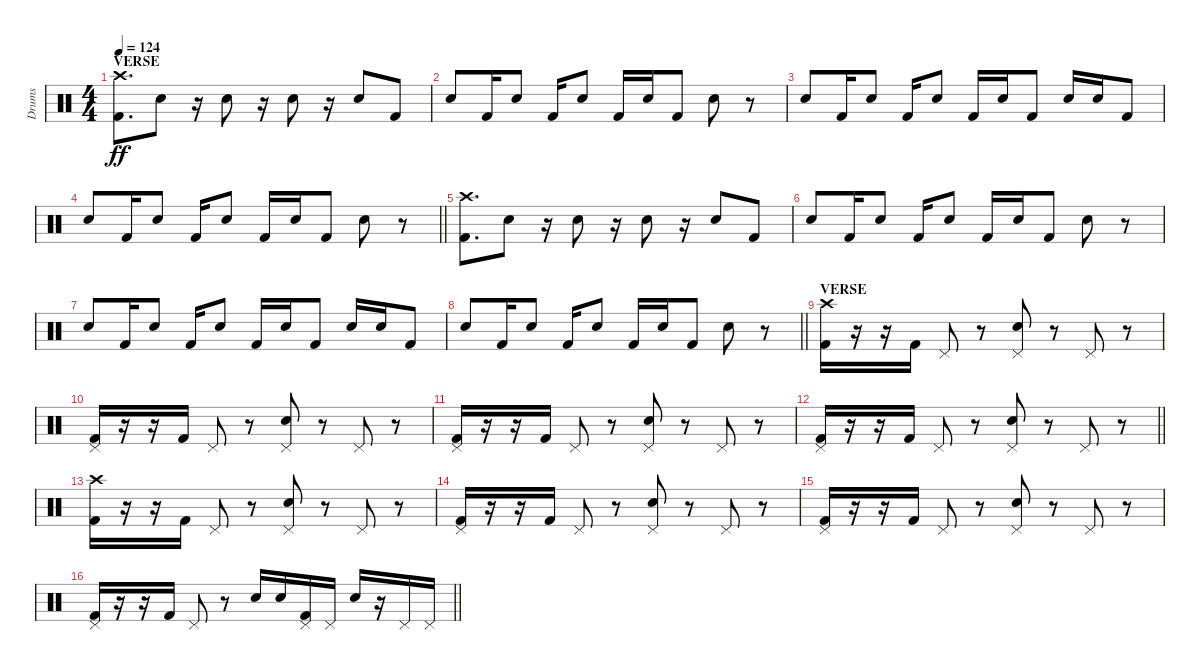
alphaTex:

\track ("Drums" "Drums") {instrument percussion}
\staff {score}
\articulation defaults
\ts (4 4)
\section ("" "VERSE")
\tempo 124
\clef neutral
\ks c
("Crash high (hit)" "Kick (hit) 2").8{d dy ff} "Electric Snare (hit)".8 r.16 "Electric Snare (hit)".8 r.16 "Electric Snare (hit)".8 r.16 "Electric Snare (hit)".8 "Kick (hit) 2".8 |
"Electric Snare (hit)".8 "Kick (hit) 2".16 "Electric Snare (hit)".8 "Kick (hit) 2".16 "Electric Snare (hit)".8 "Kick (hit) 2".16 "Electric Snare (hit)".16 "Kick (hit) 2".8 "Electric Snare (hit)".8 r.8 |
"Electric Snare (hit)".8 "Kick (hit) 2".16 "Electric Snare (hit)".8 "Kick (hit) 2".16 "Electric Snare (hit)".8 "Kick (hit) 2".16 "Electric Snare (hit)".16 "Kick (hit) 2".8 "Electric Snare (hit)".16 "Electric Snare (hit)".16 "Kick (hit) 2".8 |
\barLineRight lightlight "Electric Snare (hit)".8 "Kick (hit) 2".16 "Electric Snare (hit)".8 "Kick (hit) 2".16 "Electric Snare (hit)".8 "Kick (hit) 2".16 "Electric Snare (hit)".16 "Kick (hit) 2".8 "Electric Snare (hit)".8
r.8 |
\section ("" "")
("Crash high (hit)" "Kick (hit) 2").8{d} "Electric Snare (hit)".8 r.16 "Electric Snare (hit)".8 r.16 "Electric Snare (hit)".8 r.16 "Electric Snare (hit)".8 "Kick (hit) 2".8 |
"Electric Snare (hit)".8 "Kick (hit) 2".16 "Electric Snare (hit)".8 "Kick (hit) 2".16 "Electric Snare (hit)".8 "Kick (hit) 2".16 "Electric Snare (hit)".16 "Kick (hit) 2".8 "Electric Snare (hit)".8 r.8 |
"Electric Snare (hit)".8 "Kick (hit) 2".16 "Electric Snare (hit)".8 "Kick (hit) 2".16 "Electric Snare (hit)".8 "Kick (hit) 2".16 "Electric Snare (hit)".16 "Kick (hit) 2".8 "Electric Snare (hit)".16 "Electric Snare (hit)".16 "Kick (hit) 2".8 |
\barLineRight lightlight "Electric Snare (hit)".8 "Kick (hit) 2".16 "Electric Snare (hit)".8 "Kick (hit) 2".16 "Electric Snare (hit)".8 "Kick (hit) 2".16 "Electric Snare (hit)".16 "Kick (hit) 2".8 "Electric Snare (hit)".8
r.8 |
\section ("" "VERSE")
("Crash high (hit)" "Kick (hit) 2").16 r.16 r.16 "Kick (hit) 2".16 "Pedal Hi-Hat (hit)".8 r.8 ("Pedal Hi-Hat (hit)" "Electric Snare (hit)").8 r.8 "Pedal Hi-Hat (hit)".8 r.8 |
("Pedal Hi-Hat (hit)" "Kick (hit) 2").16 r.16 r.16 "Kick (hit) 2".16 "Pedal Hi-Hat (hit)".8 r.8 ("Pedal Hi-Hat (hit)" "Electric Snare (hit)").8 r.8 "Pedal Hi-Hat (hit)".8 r.8 |
("Pedal Hi-Hat (hit)" "Kick (hit) 2").16 r.16 r.16 "Kick (hit) 2".16 "Pedal Hi-Hat (hit)".8 r.8 ("Pedal Hi-Hat (hit)" "Electric Snare (hit)").8 r.8 "Pedal Hi-Hat (hit)".8 r.8 |
\barLineRight lightlight
("Pedal Hi-Hat (hit)" "Kick (hit) 2").16 r.16 r.16 "Kick (hit) 2".16 "Pedal Hi-Hat (hit)".8 r.8 ("Pedal Hi-Hat (hit)" "Electric Snare (hit)").8 r.8 "Pedal Hi-Hat (hit)".8 r.8 |
\section ("" "")
("Crash high (hit)" "Kick (hit) 2").16 r.16 r.16 "Kick (hit) 2".16 "Pedal Hi-Hat (hit)".8 r.8 ("Pedal Hi-Hat (hit)" "Electric Snare (hit)").8 r.8 "Pedal Hi-Hat (hit)".8 r.8 |
("Pedal Hi-Hat (hit)" "Kick (hit) 2").16 r.16 r.16 "Kick (hit) 2".16 "Pedal Hi-Hat (hit)".8 r.8 ("Pedal Hi-Hat (hit)" "Electric Snare (hit)").8 r.8 "Pedal Hi-Hat (hit)".8 r.8 |
("Pedal Hi-Hat (hit)" "Kick (hit) 2").16 r.16 r.16 "Kick (hit) 2".16 "Pedal Hi-Hat (hit)".8 r.8 ("Pedal Hi-Hat (hit)" "Electric Snare (hit)").8 r.8 "Pedal Hi-Hat (hit)".8 r.8 |
\barLineRight lightlight
("Pedal Hi-Hat (hit)" "Kick (hit) 2").16 r.16 r.16 "Kick (hit) 2".16 "Pedal Hi-Hat (hit)".8 r.8 "Electric Snare (hit)".16 "Electric Snare (hit)".16 ("Pedal Hi-Hat (hit)" "Kick (hit) 2").16 "Pedal Hi-Hat (hit)".16 "Electric Snare (hit)".16 r.16 "Pedal Hi-Hat (hit)".16 "Pedal Hi-Hat (hit)".16
